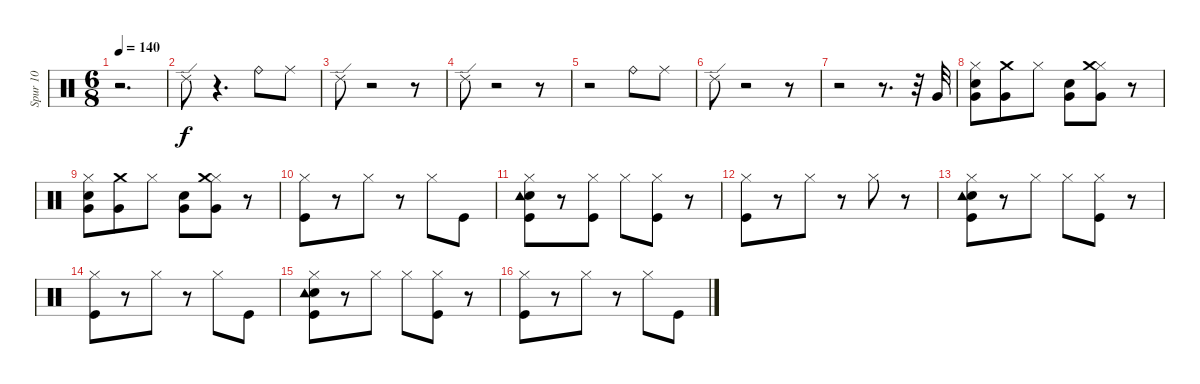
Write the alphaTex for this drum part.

\track ("Spur 10" "Spur 10") {instrument percussion}
\staff {score}
\articulation defaults
\ts (6 8)
\tempo 140
\clef neutral
\ks c
r.2{d dy f} |
"Ride (edge) 2".8 r.4{d} "Ride (bell)".8 "Ride (middle)".8 |
"Ride (edge) 2".8 r.2 r.8 |
"Ride (edge) 2".8 r.2 r.8 |
r.2 "Ride (bell)".8 "Ride (middle)".8 |
"Ride (edge) 2".8 r.2 r.8 |
r.2 r.8{d} r.32 "Very Low Tom (hit)".32 |
("Hi-Hat (closed)" "Snare (hit) 2" "Very Low Tom (hit)").8 ("Crash medium (hit)" "Very Low Tom (hit)").8 "Hi-Hat (closed)".8 ("Snare (hit) 2" "Very Low Tom (hit)").8 ("Hi-Hat (closed)" "Crash medium (hit)" "Very Low Tom (hit)").8 r.8 |
("Snare (hit) 2" "Hi-Hat (closed)" "Very Low Tom (hit)").8 ("Crash medium (hit)" "Very Low Tom (hit)").8 "Hi-Hat (closed)".8 ("Snare (hit) 2" "Very Low Tom (hit)").8 ("Hi-Hat (closed)" "Crash medium (hit)" "Very Low Tom (hit)").8 r.8 |
("Kick (hit)" "Hi-Hat (closed)").8 r.8 "Hi-Hat (closed)".8 r.8 "Hi-Hat (closed)".8 "Kick (hit)".8 |
("Kick (hit)" "Snare (hit) 2" "Tambourine (hit)" "Hi-Hat (closed)").8 r.8 ("Kick (hit)" "Hi-Hat (closed)").8 "Hi-Hat (closed)".8 ("Kick (hit)" "Hi-Hat (closed)").8 r.8 |
("Kick (hit)" "Hi-Hat (closed)").8 r.8 "Hi-Hat (closed)".8 r.8 "Hi-Hat (closed)".8 r.8 |
("Kick (hit)" "Snare (hit) 2" "Tambourine (hit)" "Hi-Hat (closed)").8 r.8 "Hi-Hat (closed)".8 "Hi-Hat (closed)".8 ("Kick (hit)" "Hi-Hat (closed)").8 r.8 |
("Kick (hit)" "Hi-Hat (closed)").8 r.8 "Hi-Hat (closed)".8 r.8 "Hi-Hat (closed)".8 "Kick (hit)".8 |
("Kick (hit)" "Snare (hit) 2" "Tambourine (hit)" "Hi-Hat (closed)").8 r.8 "Hi-Hat (closed)".8 "Hi-Hat (closed)".8 ("Kick (hit)" "Hi-Hat (closed)").8 r.8 |
("Kick (hit)" "Hi-Hat (closed)").8 r.8 "Hi-Hat (closed)".8 r.8 "Hi-Hat (closed)".8 "Kick (hit)".8
